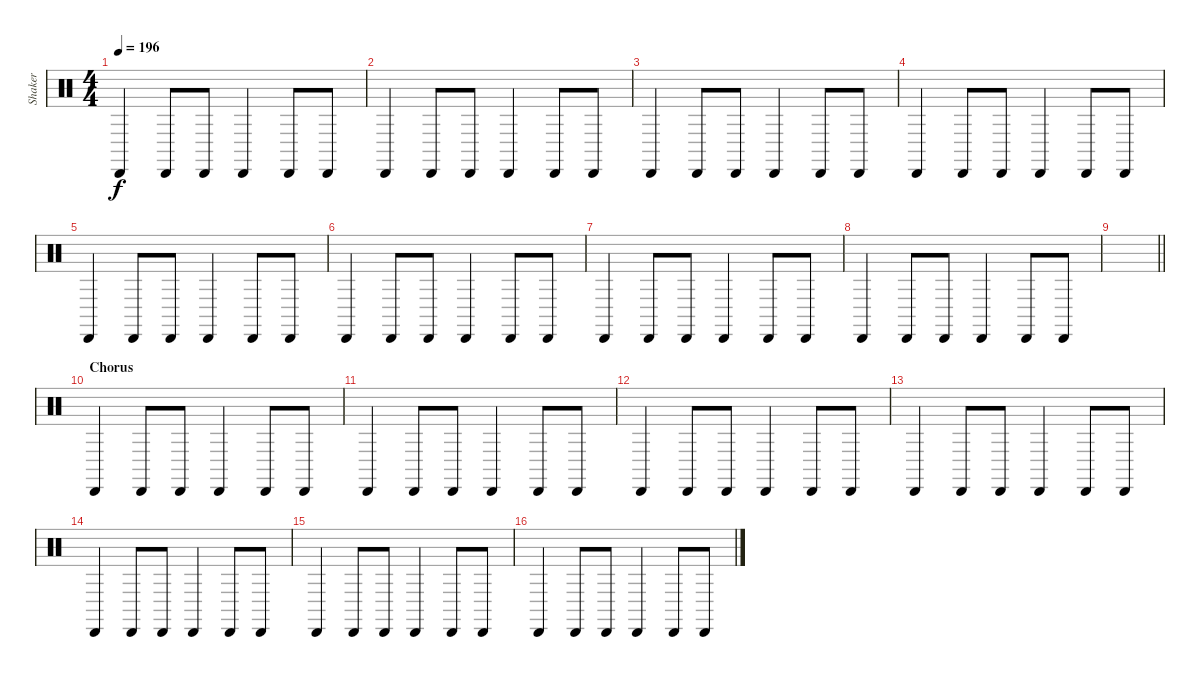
\track ("Shaker" "Shaker") {instrument percussion bank 126}
\staff {score}
\articulation defaults
\ts (4 4)
\tempo 196
\clef neutral
\ks c "Cabasa (hit)".4{dy f} "Cabasa (hit)".8 "Cabasa (hit)".8 "Cabasa (hit)".4 "Cabasa (hit)".8 "Cabasa (hit)".8
|
"Cabasa (hit)".4 "Cabasa (hit)".8 "Cabasa (hit)".8 "Cabasa (hit)".4 "Cabasa (hit)".8 "Cabasa (hit)".8 |
"Cabasa (hit)".4 "Cabasa (hit)".8 "Cabasa (hit)".8 "Cabasa (hit)".4 "Cabasa (hit)".8 "Cabasa (hit)".8 |
"Cabasa (hit)".4 "Cabasa (hit)".8 "Cabasa (hit)".8 "Cabasa (hit)".4 "Cabasa (hit)".8 "Cabasa (hit)".8 |
"Cabasa (hit)".4 "Cabasa (hit)".8 "Cabasa (hit)".8 "Cabasa (hit)".4 "Cabasa (hit)".8 "Cabasa (hit)".8 |
"Cabasa (hit)".4 "Cabasa (hit)".8 "Cabasa (hit)".8 "Cabasa (hit)".4 "Cabasa (hit)".8 "Cabasa (hit)".8 |
"Cabasa (hit)".4 "Cabasa (hit)".8 "Cabasa (hit)".8 "Cabasa (hit)".4 "Cabasa (hit)".8 "Cabasa (hit)".8 |
"Cabasa (hit)".4 "Cabasa (hit)".8 "Cabasa (hit)".8 "Cabasa (hit)".4 "Cabasa (hit)".8 "Cabasa (hit)".8 |
\barLineRight lightlight
|
\section ("" "Chorus")
"Cabasa (hit)".4 "Cabasa (hit)".8 "Cabasa (hit)".8 "Cabasa (hit)".4 "Cabasa (hit)".8 "Cabasa (hit)".8 |
"Cabasa (hit)".4 "Cabasa (hit)".8 "Cabasa (hit)".8 "Cabasa (hit)".4 "Cabasa (hit)".8 "Cabasa (hit)".8 |
"Cabasa (hit)".4 "Cabasa (hit)".8 "Cabasa (hit)".8 "Cabasa (hit)".4 "Cabasa (hit)".8 "Cabasa (hit)".8 |
"Cabasa (hit)".4 "Cabasa (hit)".8 "Cabasa (hit)".8 "Cabasa (hit)".4 "Cabasa (hit)".8 "Cabasa (hit)".8 |
"Cabasa (hit)".4 "Cabasa (hit)".8 "Cabasa (hit)".8 "Cabasa (hit)".4 "Cabasa (hit)".8 "Cabasa (hit)".8 |
"Cabasa (hit)".4 "Cabasa (hit)".8 "Cabasa (hit)".8 "Cabasa (hit)".4 "Cabasa (hit)".8 "Cabasa (hit)".8 |
"Cabasa (hit)".4 "Cabasa (hit)".8 "Cabasa (hit)".8 "Cabasa (hit)".4 "Cabasa (hit)".8 "Cabasa (hit)".8
